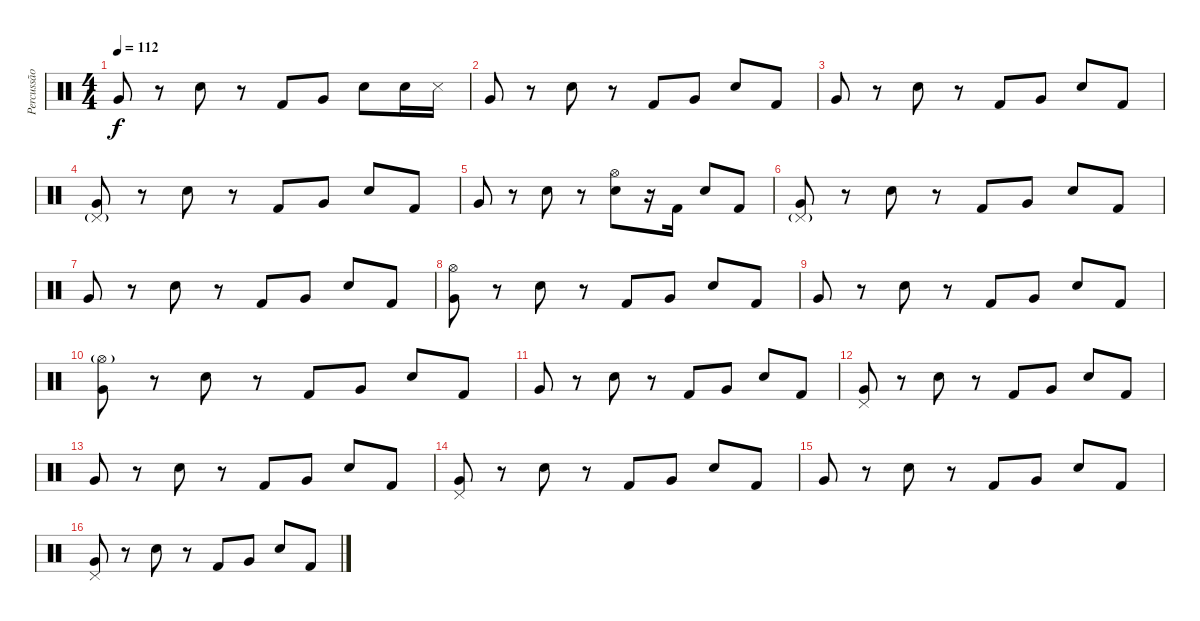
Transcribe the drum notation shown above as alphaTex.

\track ("Percussão" "Percussão") {instrument percussion}
\staff {score}
\articulation defaults
\ts (4 4)
\tempo 112
\clef neutral
\ks c "Very Low Tom (hit)".8{dy f}
r.8 "Electric Snare (hit)".8 r.8 "Kick (hit) 2".8 "Very Low Tom (hit)".8 "Electric Snare (hit)".8 "Electric Snare (hit)".16 "Snare (side stick) 3".16 |
"Very Low Tom (hit)".8 r.8 "Electric Snare (hit)".8 r.8 "Kick (hit) 2".8 "Very Low Tom (hit)".8 "Electric Snare (hit)".8 "Kick (hit) 2".8 |
"Very Low Tom (hit)".8 r.8 "Electric Snare (hit)".8 r.8 "Kick (hit) 2".8 "Very Low Tom (hit)".8 "Electric Snare (hit)".8 "Kick (hit) 2".8 |
("Pedal Hi-Hat (hit)"{g} "Very Low Tom (hit)").8 r.8 "Electric Snare (hit)".8 r.8 "Kick (hit) 2".8 "Very Low Tom (hit)".8 "Electric Snare (hit)".8 "Kick (hit) 2".8 |
"Very Low Tom (hit)".8 r.8 "Electric Snare (hit)".8 r.8 ("Hi-Hat (open)" "Electric Snare (hit)").8 r.16 "Kick (hit) 2".16 "Electric Snare (hit)".8 "Kick (hit) 2".8 |
("Pedal Hi-Hat (hit)"{g} "Very Low Tom (hit)").8 r.8 "Electric Snare (hit)".8 r.8 "Kick (hit) 2".8 "Very Low Tom (hit)".8 "Electric Snare (hit)".8 "Kick (hit) 2".8 |
"Very Low Tom (hit)".8 r.8 "Electric Snare (hit)".8 r.8 "Kick (hit) 2".8 "Very Low Tom (hit)".8 "Electric Snare (hit)".8 "Kick (hit) 2".8 |
("Hi-Hat (open)" "Very Low Tom (hit)").8 r.8 "Electric Snare (hit)".8 r.8 "Kick (hit) 2".8 "Very Low Tom (hit)".8 "Electric Snare (hit)".8 "Kick (hit) 2".8 |
"Very Low Tom (hit)".8 r.8 "Electric Snare (hit)".8 r.8 "Kick (hit) 2".8 "Very Low Tom (hit)".8 "Electric Snare (hit)".8 "Kick (hit) 2".8 |
("Hi-Hat (open)"{g} "Very Low Tom (hit)").8 r.8 "Electric Snare (hit)".8 r.8 "Kick (hit) 2".8 "Very Low Tom (hit)".8 "Electric Snare (hit)".8 "Kick (hit) 2".8 |
"Very Low Tom (hit)".8 r.8 "Electric Snare (hit)".8 r.8 "Kick (hit) 2".8 "Very Low Tom (hit)".8 "Electric Snare (hit)".8 "Kick (hit) 2".8 |
("Pedal Hi-Hat (hit)" "Very Low Tom (hit)").8 r.8 "Electric Snare (hit)".8 r.8 "Kick (hit) 2".8 "Very Low Tom (hit)".8 "Electric Snare (hit)".8 "Kick (hit) 2".8 |
"Very Low Tom (hit)".8 r.8 "Electric Snare (hit)".8 r.8 "Kick (hit) 2".8 "Very Low Tom (hit)".8 "Electric Snare (hit)".8 "Kick (hit) 2".8 |
("Pedal Hi-Hat (hit)" "Very Low Tom (hit)").8 r.8 "Electric Snare (hit)".8 r.8 "Kick (hit) 2".8 "Very Low Tom (hit)".8 "Electric Snare (hit)".8 "Kick (hit) 2".8 |
"Very Low Tom (hit)".8 r.8 "Electric Snare (hit)".8 r.8 "Kick (hit) 2".8 "Very Low Tom (hit)".8 "Electric Snare (hit)".8 "Kick (hit) 2".8 |
("Pedal Hi-Hat (hit)" "Very Low Tom (hit)").8 r.8 "Electric Snare (hit)".8 r.8 "Kick (hit) 2".8 "Very Low Tom (hit)".8 "Electric Snare (hit)".8 "Kick (hit) 2".8
